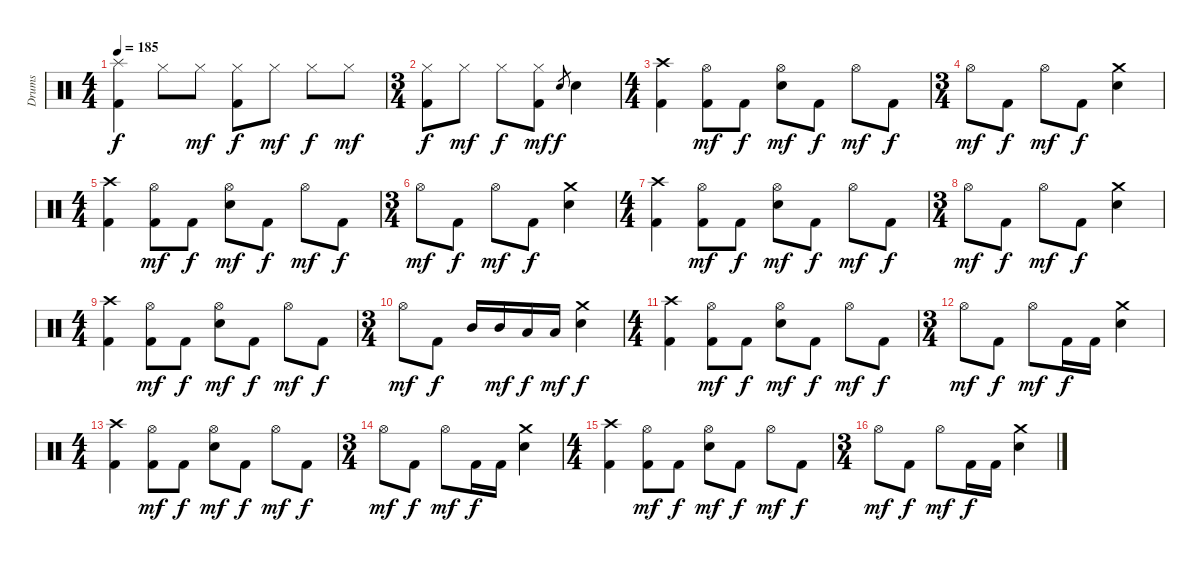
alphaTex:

\track ("Drums" "Drums") {instrument percussion}
\staff {score}
\articulation defaults
\ts (4 4)
\tempo 185
\clef neutral
\ks c
("Kick (hit) 2" "Splash (hit)").4{dy f} "Hi-Hat (closed)".8 "Hi-Hat (closed)".8{dy mf} ("Kick (hit) 2" "Hi-Hat (closed)").8{dy f} "Hi-Hat (closed)".8{dy mf} "Hi-Hat (closed)".8{dy f} "Hi-Hat (closed)".8{dy mf} |
\ts (3 4)
("Kick (hit) 2" "Hi-Hat (closed)").8{dy f} "Hi-Hat (closed)".8{dy mf} "Hi-Hat (closed)".8{dy f} ("Kick (hit) 2" "Hi-Hat (closed)").8{dy mf} "Electric Snare (hit)".8{gr dy f} "Electric Snare (hit)".4 |
\ts (4 4)
("Kick (hit) 2" "Crash high (hit)").4 ("Kick (hit) 2" "Hi-Hat (open)").8{dy mf} "Kick (hit) 2".8{dy f} ("Hi-Hat (open)" "Electric Snare (hit)").8{dy mf} "Kick (hit) 2".8{dy f} "Hi-Hat (open)".8{dy mf} "Kick (hit) 2".8{dy f} |
\ts (3 4)
"Hi-Hat (open)".8{dy mf} "Kick (hit) 2".8{dy f} "Hi-Hat (open)".8{dy mf} "Kick (hit) 2".8{dy f} ("Crash medium (hit)" "Electric Snare (hit)").4 |
\ts (4 4)
("Kick (hit) 2" "Crash high (hit)").4 ("Kick (hit) 2" "Hi-Hat (open)").8{dy mf} "Kick (hit) 2".8{dy f} ("Hi-Hat (open)" "Electric Snare (hit)").8{dy mf} "Kick (hit) 2".8{dy f} "Hi-Hat (open)".8{dy mf} "Kick (hit) 2".8{dy f} |
\ts (3 4)
"Hi-Hat (open)".8{dy mf} "Kick (hit) 2".8{dy f} "Hi-Hat (open)".8{dy mf} "Kick (hit) 2".8{dy f} ("Crash medium (hit)" "Electric Snare (hit)").4 |
\ts (4 4)
("Kick (hit) 2" "Crash high (hit)").4 ("Kick (hit) 2" "Hi-Hat (open)").8{dy mf} "Kick (hit) 2".8{dy f} ("Hi-Hat (open)" "Electric Snare (hit)").8{dy mf} "Kick (hit) 2".8{dy f} "Hi-Hat (open)".8{dy mf} "Kick (hit) 2".8{dy f} |
\ts (3 4)
"Hi-Hat (open)".8{dy mf} "Kick (hit) 2".8{dy f} "Hi-Hat (open)".8{dy mf} "Kick (hit) 2".8{dy f} ("Crash medium (hit)" "Electric Snare (hit)").4 |
\ts (4 4)
("Kick (hit) 2" "Crash high (hit)").4 ("Kick (hit) 2" "Hi-Hat (open)").8{dy mf} "Kick (hit) 2".8{dy f} ("Hi-Hat (open)" "Electric Snare (hit)").8{dy mf} "Kick (hit) 2".8{dy f} "Hi-Hat (open)".8{dy mf} "Kick (hit) 2".8{dy f} |
\ts (3 4)
"Hi-Hat (open)".8{dy mf} "Kick (hit) 2".8{dy f} "Mid Tom (hit)".16 "Mid Tom (hit)".16{dy mf} "Low Tom (hit)".16{dy f} "Low Tom (hit)".16{dy mf} ("Crash medium (hit)" "Electric Snare (hit)").4{dy f} |
\ts (4 4)
("Kick (hit) 2" "Crash high (hit)").4 ("Kick (hit) 2" "Hi-Hat (open)").8{dy mf} "Kick (hit) 2".8{dy f} ("Hi-Hat (open)" "Electric Snare (hit)").8{dy mf} "Kick (hit) 2".8{dy f} "Hi-Hat (open)".8{dy mf} "Kick (hit) 2".8{dy f} |
\ts (3 4)
"Hi-Hat (open)".8{dy mf} "Kick (hit) 2".8{dy f} "Hi-Hat (open)".8{dy mf} "Kick (hit) 2".16{dy f} "Kick (hit) 2".16 ("Crash medium (hit)" "Electric Snare (hit)").4 |
\ts (4 4)
("Kick (hit) 2" "Crash high (hit)").4 ("Kick (hit) 2" "Hi-Hat (open)").8{dy mf} "Kick (hit) 2".8{dy f} ("Hi-Hat (open)" "Electric Snare (hit)").8{dy mf} "Kick (hit) 2".8{dy f} "Hi-Hat (open)".8{dy mf} "Kick (hit) 2".8{dy f} |
\ts (3 4)
"Hi-Hat (open)".8{dy mf} "Kick (hit) 2".8{dy f} "Hi-Hat (open)".8{dy mf} "Kick (hit) 2".16{dy f} "Kick (hit) 2".16 ("Crash medium (hit)" "Electric Snare (hit)").4 |
\ts (4 4)
("Kick (hit) 2" "Crash high (hit)").4 ("Kick (hit) 2" "Hi-Hat (open)").8{dy mf} "Kick (hit) 2".8{dy f} ("Hi-Hat (open)" "Electric Snare (hit)").8{dy mf} "Kick (hit) 2".8{dy f} "Hi-Hat (open)".8{dy mf} "Kick (hit) 2".8{dy f} |
\ts (3 4)
"Hi-Hat (open)".8{dy mf} "Kick (hit) 2".8{dy f} "Hi-Hat (open)".8{dy mf} "Kick (hit) 2".16{dy f} "Kick (hit) 2".16 ("Crash medium (hit)" "Electric Snare (hit)").4
